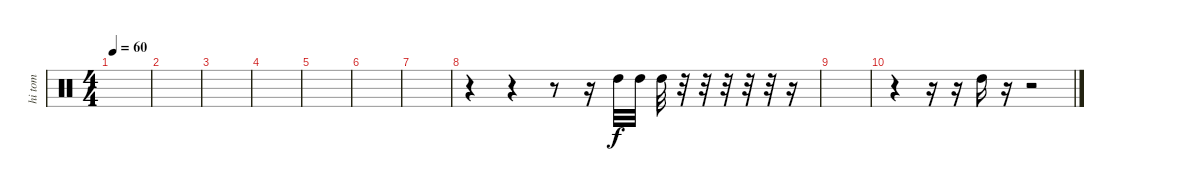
\track ("hi tom" "hi tom") {instrument percussion}
\staff {score}
\articulation defaults
\ts (4 4)
\tempo 60
\clef neutral
\ks c
|
|
|
|
|
|
|
r.4 r.4 r.8 r.16 "High Tom (hit)".32 "High Tom (hit)".32 "High Tom (hit)".32 r.32 r.32 r.32 r.32 r.32 r.16 |
|
r.4 r.16 r.16 "High Tom (hit)".16 r.16 r.2
